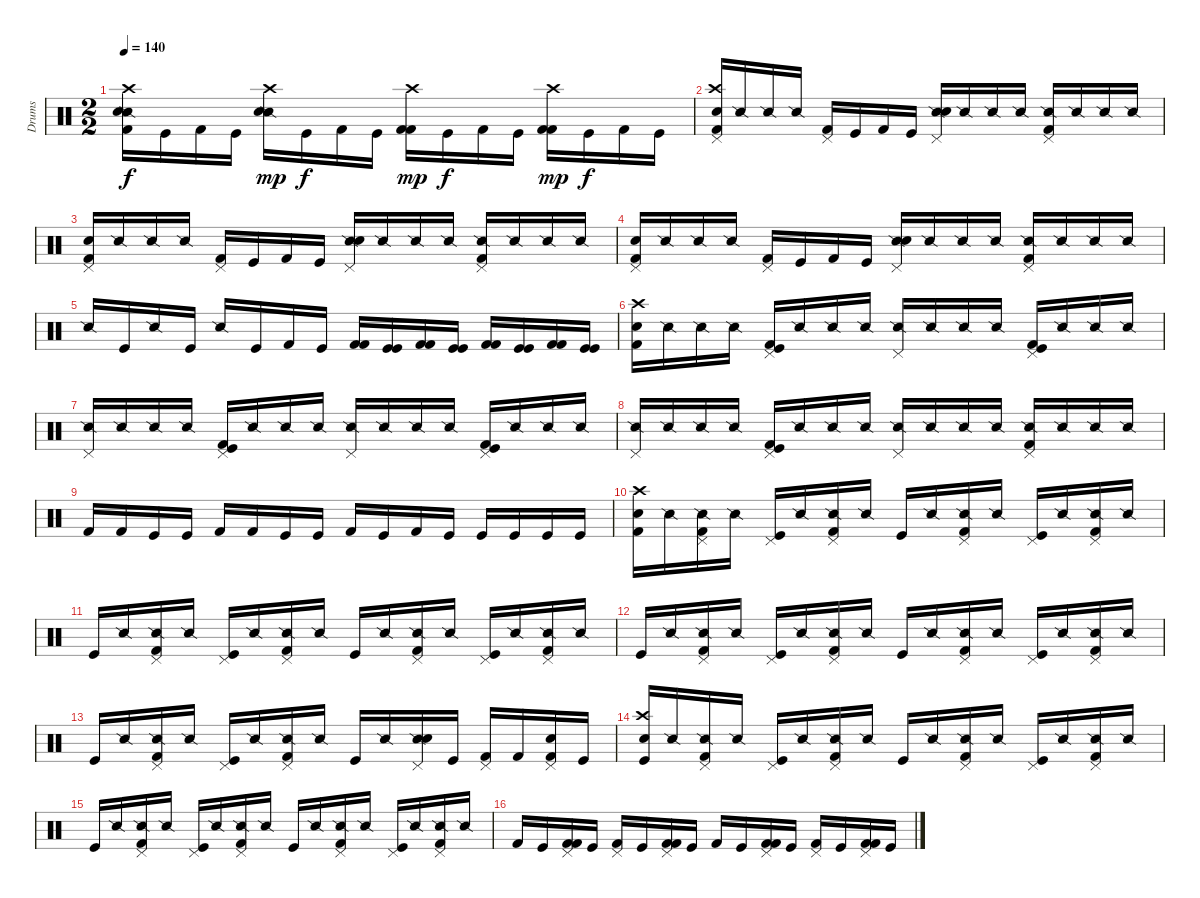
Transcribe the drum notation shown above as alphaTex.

\track ("Drums" "Drums") {instrument percussion}
\staff {score}
\articulation defaults
\ts (2 2)
\tempo 140
\clef neutral
\ks c
("Snare (side stick) 2" "Snare (hit) 2" "Kick (hit) 2" "Crash high (hit)").16{dy f} "Kick (hit)".16 "Kick (hit) 2".16 "Kick (hit)".16 ("Snare (side stick) 2" "Snare (hit) 2" "Crash high (hit)").16{dy mp} "Kick (hit)".16{dy f} "Kick (hit) 2".16 "Kick (hit)".16 ("Kick (hit) 2" "Kick (hit) 2" "Crash high (hit)").16{dy mp} "Kick (hit)".16{dy f} "Kick (hit) 2".16 "Kick (hit)".16 ("Kick (hit) 2" "Kick (hit) 2" "Crash high (hit)").16{dy mp} "Kick (hit)".16{dy f} "Kick (hit) 2".16 "Kick (hit)".16 |
("Kick (hit) 2" "Snare (hit) 2" "Crash high (hit)" "Pedal Hi-Hat (hit)").16 "Snare (side stick) 2".16 "Snare (side stick) 2".16 "Snare (side stick) 2".16 ("Kick (hit) 2" "Pedal Hi-Hat (hit)").16 "Kick (hit)".16 "Kick (hit) 2".16 "Kick (hit)".16 ("Snare (side stick) 2" "Snare (hit) 2" "Pedal Hi-Hat (hit)").16 "Snare (side stick) 2".16 "Snare (side stick) 2".16 "Snare (side stick) 2".16 ("Snare (side stick) 2" "Kick (hit) 2" "Pedal Hi-Hat (hit)").16 "Snare (side stick) 2".16 "Snare (side stick) 2".16 "Snare (side stick) 2".16 |
("Kick (hit) 2" "Snare (hit) 2" "Pedal Hi-Hat (hit)").16 "Snare (side stick) 2".16 "Snare (side stick) 2".16 "Snare (side stick) 2".16 ("Kick (hit) 2" "Pedal Hi-Hat (hit)").16 "Kick (hit)".16 "Kick (hit) 2".16 "Kick (hit)".16 ("Snare (side stick) 2" "Snare (hit) 2" "Pedal Hi-Hat (hit)").16 "Snare (side stick) 2".16 "Snare (side stick) 2".16 "Snare (side stick) 2".16 ("Snare (side stick) 2" "Kick (hit) 2" "Pedal Hi-Hat (hit)").16 "Snare (side stick) 2".16 "Snare (side stick) 2".16 "Snare (side stick) 2".16 |
("Kick (hit) 2" "Snare (hit) 2" "Pedal Hi-Hat (hit)").16 "Snare (side stick) 2".16 "Snare (side stick) 2".16 "Snare (side stick) 2".16 ("Kick (hit) 2" "Pedal Hi-Hat (hit)").16 "Kick (hit)".16 "Kick (hit) 2".16 "Kick (hit)".16 ("Snare (side stick) 2" "Snare (hit) 2" "Pedal Hi-Hat (hit)").16 "Snare (side stick) 2".16 "Snare (side stick) 2".16 "Snare (side stick) 2".16 ("Snare (side stick) 2" "Kick (hit) 2" "Pedal Hi-Hat (hit)").16 "Snare (side stick) 2".16 "Snare (side stick) 2".16 "Snare (side stick) 2".16 |
"Snare (side stick) 2".16 "Kick (hit)".16 "Snare (side stick) 2".16 "Kick (hit)".16 "Snare (side stick) 2".16 "Kick (hit)".16 "Kick (hit) 2".16 "Kick (hit)".16 ("Kick (hit) 2" "Kick (hit) 2").16 ("Kick (hit)" "Kick (hit)").16 ("Kick (hit) 2" "Kick (hit) 2").16 ("Kick (hit)" "Kick (hit)").16 ("Kick (hit) 2" "Kick (hit) 2").16 ("Kick (hit)" "Kick (hit)").16 ("Kick (hit) 2" "Kick (hit) 2").16 ("Kick (hit)" "Kick (hit)").16 |
("Kick (hit) 2" "Snare (hit) 2" "Crash high (hit)").16 "Snare (side stick) 2".16 "Snare (side stick) 2".16 "Snare (side stick) 2".16 ("Kick (hit)" "Pedal Hi-Hat (hit)" "Kick (hit) 2").16 "Snare (side stick) 2".16 "Snare (side stick) 2".16 "Snare (side stick) 2".16 ("Snare (side stick) 2" "Pedal Hi-Hat (hit)").16 "Snare (side stick) 2".16 "Snare (side stick) 2".16 "Snare (side stick) 2".16 ("Kick (hit)" "Pedal Hi-Hat (hit)" "Kick (hit) 2").16 "Snare (side stick) 2".16 "Snare (side stick) 2".16 "Snare (side stick) 2".16 |
("Snare (side stick) 2" "Pedal Hi-Hat (hit)").16 "Snare (side stick) 2".16 "Snare (side stick) 2".16 "Snare (side stick) 2".16 ("Kick (hit)" "Pedal Hi-Hat (hit)" "Kick (hit) 2").16 "Snare (side stick) 2".16 "Snare (side stick) 2".16 "Snare (side stick) 2".16 ("Snare (side stick) 2" "Pedal Hi-Hat (hit)").16 "Snare (side stick) 2".16 "Snare (side stick) 2".16 "Snare (side stick) 2".16 ("Kick (hit)" "Pedal Hi-Hat (hit)" "Kick (hit) 2").16 "Snare (side stick) 2".16 "Snare (side stick) 2".16 "Snare (side stick) 2".16 |
("Snare (side stick) 2" "Pedal Hi-Hat (hit)").16 "Snare (side stick) 2".16 "Snare (side stick) 2".16 "Snare (side stick) 2".16 ("Kick (hit)" "Pedal Hi-Hat (hit)" "Kick (hit) 2").16 "Snare (side stick) 2".16 "Snare (side stick) 2".16 "Snare (side stick) 2".16 ("Snare (side stick) 2" "Pedal Hi-Hat (hit)").16 "Snare (side stick) 2".16 "Snare (side stick) 2".16 "Snare (side stick) 2".16 ("Snare (side stick) 2" "Pedal Hi-Hat (hit)" "Kick (hit) 2").16 "Snare (side stick) 2".16 "Snare (side stick) 2".16 "Snare (side stick) 2".16 |
"Kick (hit) 2".16 "Kick (hit) 2".16 "Kick (hit)".16 "Kick (hit)".16 "Kick (hit) 2".16 "Kick (hit) 2".16 "Kick (hit)".16 "Kick (hit)".16 "Kick (hit) 2".16 "Kick (hit)".16 "Kick (hit) 2".16 "Kick (hit)".16 "Kick (hit)".16 "Kick (hit)".16 "Kick (hit)".16 "Kick (hit)".16 |
("Kick (hit) 2" "Snare (hit) 2" "Crash high (hit)").16 "Snare (side stick) 2".16 ("Snare (side stick) 2" "Pedal Hi-Hat (hit)" "Kick (hit) 2").16 "Snare (side stick) 2".16 ("Kick (hit)" "Pedal Hi-Hat (hit)").16 "Snare (side stick) 2".16 ("Snare (side stick) 2" "Pedal Hi-Hat (hit)" "Kick (hit) 2").16 "Snare (side stick) 2".16 "Kick (hit)".16 "Snare (side stick) 2".16 ("Snare (side stick) 2" "Pedal Hi-Hat (hit)" "Kick (hit) 2").16 "Snare (side stick) 2".16 ("Kick (hit)" "Pedal Hi-Hat (hit)").16 "Snare (side stick) 2".16 ("Snare (side stick) 2" "Pedal Hi-Hat (hit)" "Kick (hit) 2").16 "Snare (side stick) 2".16 |
"Kick (hit)".16 "Snare (side stick) 2".16 ("Snare (side stick) 2" "Pedal Hi-Hat (hit)" "Kick (hit) 2").16 "Snare (side stick) 2".16 ("Kick (hit)" "Pedal Hi-Hat (hit)").16 "Snare (side stick) 2".16 ("Snare (side stick) 2" "Pedal Hi-Hat (hit)" "Kick (hit) 2").16 "Snare (side stick) 2".16 "Kick (hit)".16 "Snare (side stick) 2".16 ("Snare (side stick) 2" "Pedal Hi-Hat (hit)" "Kick (hit) 2").16 "Snare (side stick) 2".16 ("Kick (hit)" "Pedal Hi-Hat (hit)").16 "Snare (side stick) 2".16 ("Snare (side stick) 2" "Pedal Hi-Hat (hit)" "Kick (hit) 2").16 "Snare (side stick) 2".16 |
"Kick (hit)".16 "Snare (side stick) 2".16 ("Snare (side stick) 2" "Pedal Hi-Hat (hit)" "Kick (hit) 2").16 "Snare (side stick) 2".16 ("Kick (hit)" "Pedal Hi-Hat (hit)").16 "Snare (side stick) 2".16 ("Snare (side stick) 2" "Pedal Hi-Hat (hit)" "Kick (hit) 2").16 "Snare (side stick) 2".16 "Kick (hit)".16 "Snare (side stick) 2".16 ("Snare (side stick) 2" "Pedal Hi-Hat (hit)" "Kick (hit) 2").16 "Snare (side stick) 2".16 ("Kick (hit)" "Pedal Hi-Hat (hit)").16 "Snare (side stick) 2".16 ("Snare (side stick) 2" "Pedal Hi-Hat (hit)" "Kick (hit) 2").16 "Snare (side stick) 2".16 |
"Kick (hit)".16 "Snare (side stick) 2".16 ("Snare (side stick) 2" "Pedal Hi-Hat (hit)" "Kick (hit) 2").16 "Snare (side stick) 2".16 ("Kick (hit)" "Pedal Hi-Hat (hit)").16 "Snare (side stick) 2".16 ("Snare (side stick) 2" "Pedal Hi-Hat (hit)" "Kick (hit) 2").16 "Snare (side stick) 2".16 "Kick (hit)".16 "Snare (side stick) 2".16 ("Snare (side stick) 2" "Pedal Hi-Hat (hit)" "Snare (hit) 2").16 "Kick (hit)".16 ("Kick (hit) 2" "Pedal Hi-Hat (hit)").16 "Kick (hit) 2".16 ("Kick (hit) 2" "Pedal Hi-Hat (hit)" "Snare (hit) 2").16 "Kick (hit)".16 |
("Kick (hit)" "Snare (hit) 2" "Crash high (hit)").16 "Snare (side stick) 2".16 ("Snare (side stick) 2" "Pedal Hi-Hat (hit)" "Kick (hit) 2").16 "Snare (side stick) 2".16 ("Kick (hit)" "Pedal Hi-Hat (hit)").16 "Snare (side stick) 2".16 ("Snare (side stick) 2" "Pedal Hi-Hat (hit)" "Kick (hit) 2").16 "Snare (side stick) 2".16 "Kick (hit)".16 "Snare (side stick) 2".16 ("Snare (side stick) 2" "Pedal Hi-Hat (hit)" "Kick (hit) 2").16 "Snare (side stick) 2".16 ("Kick (hit)" "Pedal Hi-Hat (hit)").16 "Snare (side stick) 2".16 ("Snare (side stick) 2" "Pedal Hi-Hat (hit)" "Kick (hit) 2").16 "Snare (side stick) 2".16 |
"Kick (hit)".16 "Snare (side stick) 2".16 ("Snare (side stick) 2" "Pedal Hi-Hat (hit)" "Kick (hit) 2").16 "Snare (side stick) 2".16 ("Kick (hit)" "Pedal Hi-Hat (hit)").16 "Snare (side stick) 2".16 ("Snare (side stick) 2" "Pedal Hi-Hat (hit)" "Kick (hit) 2").16 "Snare (side stick) 2".16 "Kick (hit)".16 "Snare (side stick) 2".16 ("Snare (side stick) 2" "Pedal Hi-Hat (hit)" "Kick (hit) 2").16 "Snare (side stick) 2".16 ("Kick (hit)" "Pedal Hi-Hat (hit)").16 "Snare (side stick) 2".16 ("Snare (side stick) 2" "Pedal Hi-Hat (hit)" "Kick (hit) 2").16 "Snare (side stick) 2".16 |
"Kick (hit) 2".16 "Kick (hit)".16 ("Kick (hit) 2" "Pedal Hi-Hat (hit)" "Kick (hit) 2").16 "Kick (hit)".16 ("Kick (hit) 2" "Pedal Hi-Hat (hit)").16 "Kick (hit)".16 ("Kick (hit) 2" "Pedal Hi-Hat (hit)" "Kick (hit) 2").16 "Kick (hit)".16 "Kick (hit) 2".16 "Kick (hit)".16 ("Kick (hit) 2" "Pedal Hi-Hat (hit)" "Kick (hit) 2").16 "Kick (hit)".16 ("Kick (hit) 2" "Pedal Hi-Hat (hit)").16 "Kick (hit)".16 ("Kick (hit) 2" "Pedal Hi-Hat (hit)" "Kick (hit) 2").16 "Kick (hit)".16
